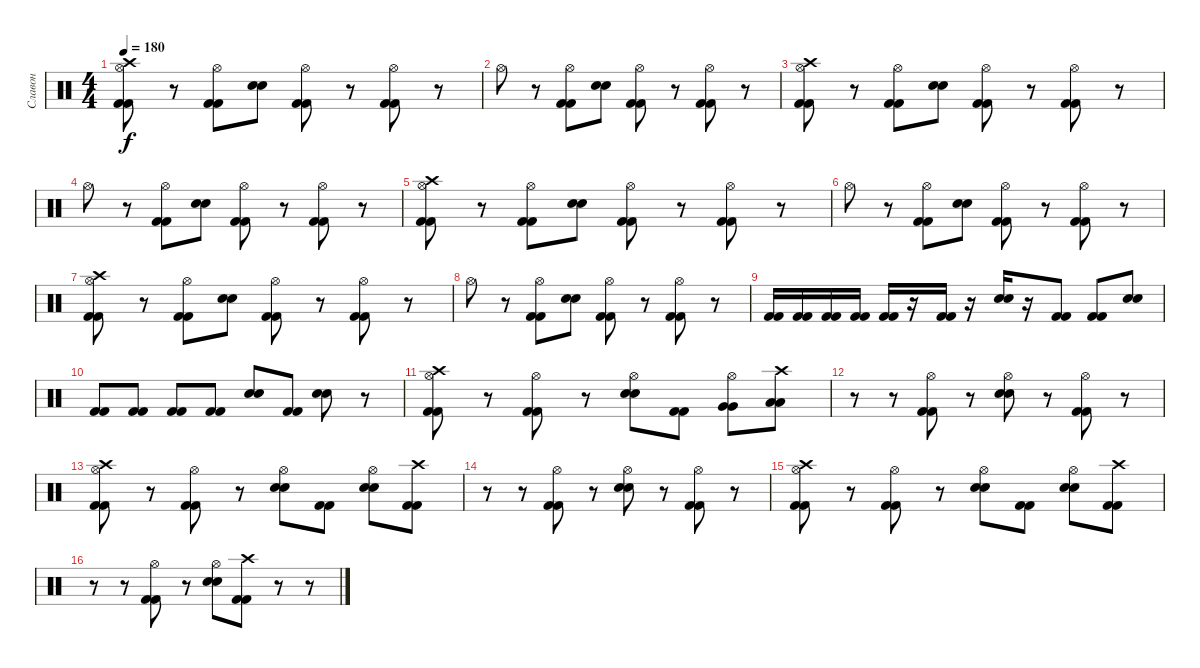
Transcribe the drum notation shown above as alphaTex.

\track ("Славон" "Славон") {instrument percussion}
\staff {score}
\articulation defaults
\ts (4 4)
\tempo 180
\clef neutral
\ks c
("Hi-Hat (open)" "Kick (hit) 2" "Kick (hit) 2" "Crash high (hit)").8{dy f} r.8 ("Hi-Hat (open)" "Kick (hit) 2" "Kick (hit) 2").8 ("Electric Snare (hit)" "Electric Snare (hit)").8 ("Hi-Hat (open)" "Kick (hit) 2" "Kick (hit) 2").8 r.8 ("Hi-Hat (open)" "Kick (hit) 2" "Kick (hit) 2").8 r.8 |
"Hi-Hat (open)".8 r.8 ("Hi-Hat (open)" "Kick (hit) 2" "Kick (hit) 2").8 ("Electric Snare (hit)" "Electric Snare (hit)").8 ("Hi-Hat (open)" "Kick (hit) 2" "Kick (hit) 2").8 r.8 ("Hi-Hat (open)" "Kick (hit) 2" "Kick (hit) 2").8 r.8 |
("Hi-Hat (open)" "Kick (hit) 2" "Kick (hit) 2" "Crash high (hit)").8 r.8 ("Hi-Hat (open)" "Kick (hit) 2" "Kick (hit) 2").8 ("Electric Snare (hit)" "Electric Snare (hit)").8 ("Hi-Hat (open)" "Kick (hit) 2" "Kick (hit) 2").8 r.8 ("Hi-Hat (open)" "Kick (hit) 2" "Kick (hit) 2").8 r.8 |
"Hi-Hat (open)".8 r.8 ("Hi-Hat (open)" "Kick (hit) 2" "Kick (hit) 2").8 ("Electric Snare (hit)" "Electric Snare (hit)").8 ("Hi-Hat (open)" "Kick (hit) 2" "Kick (hit) 2").8 r.8 ("Hi-Hat (open)" "Kick (hit) 2" "Kick (hit) 2").8 r.8 |
("Hi-Hat (open)" "Kick (hit) 2" "Kick (hit) 2" "Crash high (hit)").8 r.8 ("Hi-Hat (open)" "Kick (hit) 2" "Kick (hit) 2").8 ("Electric Snare (hit)" "Electric Snare (hit)").8 ("Hi-Hat (open)" "Kick (hit) 2" "Kick (hit) 2").8 r.8 ("Hi-Hat (open)" "Kick (hit) 2" "Kick (hit) 2").8 r.8 |
"Hi-Hat (open)".8 r.8 ("Hi-Hat (open)" "Kick (hit) 2" "Kick (hit) 2").8 ("Electric Snare (hit)" "Electric Snare (hit)").8 ("Hi-Hat (open)" "Kick (hit) 2" "Kick (hit) 2").8 r.8 ("Hi-Hat (open)" "Kick (hit) 2" "Kick (hit) 2").8 r.8 |
("Hi-Hat (open)" "Kick (hit) 2" "Kick (hit) 2" "Crash high (hit)").8 r.8 ("Hi-Hat (open)" "Kick (hit) 2" "Kick (hit) 2").8 ("Electric Snare (hit)" "Electric Snare (hit)").8 ("Hi-Hat (open)" "Kick (hit) 2" "Kick (hit) 2").8 r.8 ("Hi-Hat (open)" "Kick (hit) 2" "Kick (hit) 2").8 r.8 |
"Hi-Hat (open)".8 r.8 ("Hi-Hat (open)" "Kick (hit) 2" "Kick (hit) 2").8 ("Electric Snare (hit)" "Electric Snare (hit)").8 ("Hi-Hat (open)" "Kick (hit) 2" "Kick (hit) 2").8 r.8 ("Hi-Hat (open)" "Kick (hit) 2" "Kick (hit) 2").8 r.8 |
("Kick (hit) 2" "Kick (hit) 2").16 ("Kick (hit) 2" "Kick (hit) 2").16 ("Kick (hit) 2" "Kick (hit) 2").16 ("Kick (hit) 2" "Kick (hit) 2").16 ("Kick (hit) 2" "Kick (hit) 2").16 r.16 ("Kick (hit) 2" "Kick (hit) 2").16 r.16 ("Electric Snare (hit)" "Electric Snare (hit)").16 r.16 ("Kick (hit) 2" "Kick (hit) 2").8 ("Kick (hit) 2" "Kick (hit) 2").8 ("Electric Snare (hit)" "Electric Snare (hit)").8 |
("Kick (hit) 2" "Kick (hit) 2").8 ("Kick (hit) 2" "Kick (hit) 2").8 ("Kick (hit) 2" "Kick (hit) 2").8 ("Kick (hit) 2" "Kick (hit) 2").8 ("Electric Snare (hit)" "Electric Snare (hit)").8 ("Kick (hit) 2" "Kick (hit) 2").8 ("Electric Snare (hit)" "Electric Snare (hit)").8 r.8 |
("Hi-Hat (open)" "Kick (hit) 2" "Kick (hit) 2" "Crash high (hit)").8 r.8 ("Hi-Hat (open)" "Kick (hit) 2" "Kick (hit) 2").8 r.8 ("Hi-Hat (open)" "Electric Snare (hit)" "Electric Snare (hit)").8 ("Kick (hit) 2" "Kick (hit) 2").8 ("Hi-Hat (open)" "Very Low Tom (hit)" "Very Low Tom (hit)").8 ("Low Floor Tom (hit)" "Low Floor Tom (hit)" "Crash high (hit)").8 |
r.8 r.8 ("Hi-Hat (open)" "Kick (hit) 2" "Kick (hit) 2").8 r.8 ("Hi-Hat (open)" "Electric Snare (hit)" "Electric Snare (hit)").8 r.8 ("Hi-Hat (open)" "Kick (hit) 2" "Kick (hit) 2").8 r.8 |
("Hi-Hat (open)" "Kick (hit) 2" "Kick (hit) 2" "Crash high (hit)").8 r.8 ("Hi-Hat (open)" "Kick (hit) 2" "Kick (hit) 2").8 r.8 ("Hi-Hat (open)" "Electric Snare (hit)" "Electric Snare (hit)").8 ("Kick (hit) 2" "Kick (hit) 2").8 ("Hi-Hat (open)" "Electric Snare (hit)" "Electric Snare (hit)").8 ("Kick (hit) 2" "Kick (hit) 2" "Crash high (hit)").8 |
r.8 r.8 ("Hi-Hat (open)" "Kick (hit) 2" "Kick (hit) 2").8 r.8 ("Hi-Hat (open)" "Electric Snare (hit)" "Electric Snare (hit)").8 r.8 ("Hi-Hat (open)" "Kick (hit) 2" "Kick (hit) 2").8 r.8 |
("Hi-Hat (open)" "Kick (hit) 2" "Kick (hit) 2" "Crash high (hit)").8 r.8 ("Hi-Hat (open)" "Kick (hit) 2" "Kick (hit) 2").8 r.8 ("Hi-Hat (open)" "Electric Snare (hit)" "Electric Snare (hit)").8 ("Kick (hit) 2" "Kick (hit) 2").8 ("Hi-Hat (open)" "Electric Snare (hit)" "Electric Snare (hit)").8 ("Kick (hit) 2" "Kick (hit) 2" "Crash high (hit)").8 |
r.8 r.8 ("Hi-Hat (open)" "Kick (hit) 2" "Kick (hit) 2").8 r.8 ("Hi-Hat (open)" "Electric Snare (hit)" "Electric Snare (hit)").8 ("Kick (hit) 2" "Kick (hit) 2" "Crash high (hit)").8 r.8 r.8
